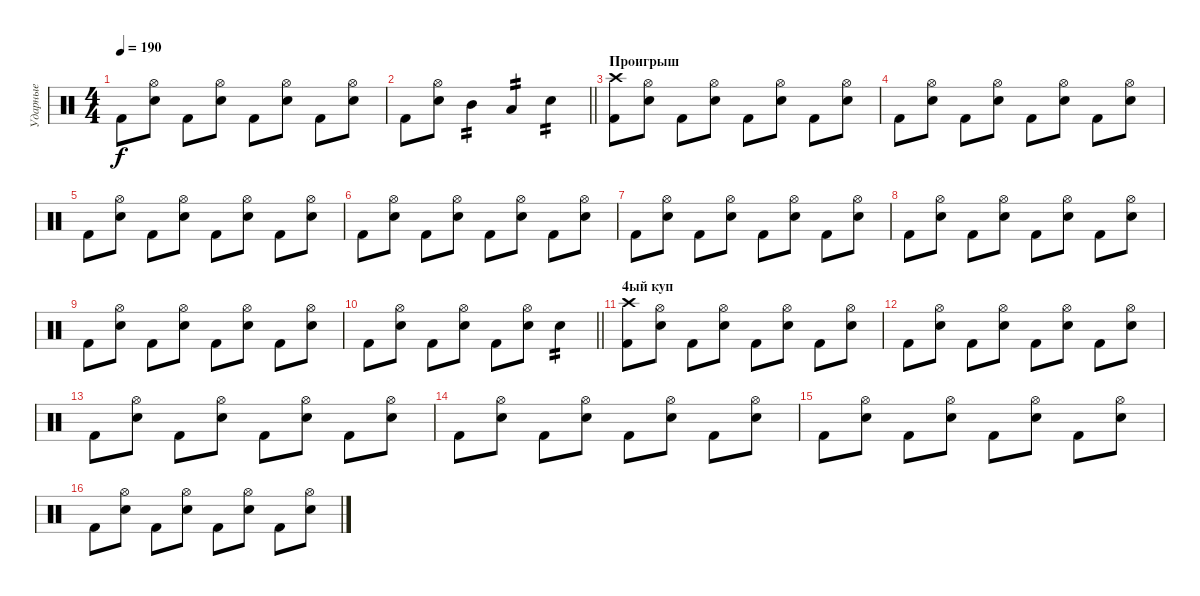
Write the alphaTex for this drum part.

\track ("Ударные" "Ударные") {instrument percussion}
\staff {score}
\articulation defaults
\ts (4 4)
\tempo 190
\clef neutral
\ks c "Kick (hit) 2".8{dy f}
("Hi-Hat (open)" "Electric Snare (hit)").8 "Kick (hit) 2".8 ("Hi-Hat (open)" "Electric Snare (hit)").8 "Kick (hit) 2".8 ("Hi-Hat (open)" "Electric Snare (hit)").8 "Kick (hit) 2".8 ("Hi-Hat (open)" "Electric Snare (hit)").8 |
\barLineRight lightlight "Kick (hit) 2".8
("Hi-Hat (open)" "Electric Snare (hit)").8 "Mid Tom (hit)".4{tp 2} "Low Tom (hit)".4{tp 2} "Electric Snare (hit)".4{tp 2} |
\section ("" "Проигрыш")
("Crash high (hit)" "Kick (hit) 2").8 ("Hi-Hat (open)" "Electric Snare (hit)").8 "Kick (hit) 2".8 ("Hi-Hat (open)" "Electric Snare (hit)").8 "Kick (hit) 2".8 ("Hi-Hat (open)" "Electric Snare (hit)").8 "Kick (hit) 2".8 ("Hi-Hat (open)" "Electric Snare (hit)").8 |
"Kick (hit) 2".8 ("Hi-Hat (open)" "Electric Snare (hit)").8 "Kick (hit) 2".8 ("Hi-Hat (open)" "Electric Snare (hit)").8 "Kick (hit) 2".8 ("Hi-Hat (open)" "Electric Snare (hit)").8 "Kick (hit) 2".8 ("Hi-Hat (open)" "Electric Snare (hit)").8 |
"Kick (hit) 2".8 ("Hi-Hat (open)" "Electric Snare (hit)").8 "Kick (hit) 2".8 ("Hi-Hat (open)" "Electric Snare (hit)").8 "Kick (hit) 2".8 ("Hi-Hat (open)" "Electric Snare (hit)").8 "Kick (hit) 2".8 ("Hi-Hat (open)" "Electric Snare (hit)").8 |
"Kick (hit) 2".8 ("Hi-Hat (open)" "Electric Snare (hit)").8 "Kick (hit) 2".8 ("Hi-Hat (open)" "Electric Snare (hit)").8 "Kick (hit) 2".8 ("Hi-Hat (open)" "Electric Snare (hit)").8 "Kick (hit) 2".8 ("Hi-Hat (open)" "Electric Snare (hit)").8 |
"Kick (hit) 2".8 ("Hi-Hat (open)" "Electric Snare (hit)").8 "Kick (hit) 2".8 ("Hi-Hat (open)" "Electric Snare (hit)").8 "Kick (hit) 2".8 ("Hi-Hat (open)" "Electric Snare (hit)").8 "Kick (hit) 2".8 ("Hi-Hat (open)" "Electric Snare (hit)").8 |
"Kick (hit) 2".8 ("Hi-Hat (open)" "Electric Snare (hit)").8 "Kick (hit) 2".8 ("Hi-Hat (open)" "Electric Snare (hit)").8 "Kick (hit) 2".8 ("Hi-Hat (open)" "Electric Snare (hit)").8 "Kick (hit) 2".8 ("Hi-Hat (open)" "Electric Snare (hit)").8 |
"Kick (hit) 2".8 ("Hi-Hat (open)" "Electric Snare (hit)").8 "Kick (hit) 2".8 ("Hi-Hat (open)" "Electric Snare (hit)").8 "Kick (hit) 2".8 ("Hi-Hat (open)" "Electric Snare (hit)").8 "Kick (hit) 2".8 ("Hi-Hat (open)" "Electric Snare (hit)").8 |
\barLineRight lightlight "Kick (hit) 2".8
("Hi-Hat (open)" "Electric Snare (hit)").8 "Kick (hit) 2".8 ("Hi-Hat (open)" "Electric Snare (hit)").8 "Kick (hit) 2".8 ("Hi-Hat (open)" "Electric Snare (hit)").8 "Electric Snare (hit)".4{tp 2} |
\section ("" "4ый куп")
("Crash high (hit)" "Kick (hit) 2").8 ("Hi-Hat (open)" "Electric Snare (hit)").8 "Kick (hit) 2".8 ("Hi-Hat (open)" "Electric Snare (hit)").8 "Kick (hit) 2".8 ("Hi-Hat (open)" "Electric Snare (hit)").8 "Kick (hit) 2".8 ("Hi-Hat (open)" "Electric Snare (hit)").8 |
"Kick (hit) 2".8 ("Hi-Hat (open)" "Electric Snare (hit)").8 "Kick (hit) 2".8 ("Hi-Hat (open)" "Electric Snare (hit)").8 "Kick (hit) 2".8 ("Hi-Hat (open)" "Electric Snare (hit)").8 "Kick (hit) 2".8 ("Hi-Hat (open)" "Electric Snare (hit)").8 |
"Kick (hit) 2".8 ("Hi-Hat (open)" "Electric Snare (hit)").8 "Kick (hit) 2".8 ("Hi-Hat (open)" "Electric Snare (hit)").8 "Kick (hit) 2".8 ("Hi-Hat (open)" "Electric Snare (hit)").8 "Kick (hit) 2".8 ("Hi-Hat (open)" "Electric Snare (hit)").8 |
"Kick (hit) 2".8 ("Hi-Hat (open)" "Electric Snare (hit)").8 "Kick (hit) 2".8 ("Hi-Hat (open)" "Electric Snare (hit)").8 "Kick (hit) 2".8 ("Hi-Hat (open)" "Electric Snare (hit)").8 "Kick (hit) 2".8 ("Hi-Hat (open)" "Electric Snare (hit)").8 |
"Kick (hit) 2".8 ("Hi-Hat (open)" "Electric Snare (hit)").8 "Kick (hit) 2".8 ("Hi-Hat (open)" "Electric Snare (hit)").8 "Kick (hit) 2".8 ("Hi-Hat (open)" "Electric Snare (hit)").8 "Kick (hit) 2".8 ("Hi-Hat (open)" "Electric Snare (hit)").8 |
"Kick (hit) 2".8 ("Hi-Hat (open)" "Electric Snare (hit)").8 "Kick (hit) 2".8 ("Hi-Hat (open)" "Electric Snare (hit)").8 "Kick (hit) 2".8 ("Hi-Hat (open)" "Electric Snare (hit)").8 "Kick (hit) 2".8 ("Hi-Hat (open)" "Electric Snare (hit)").8
